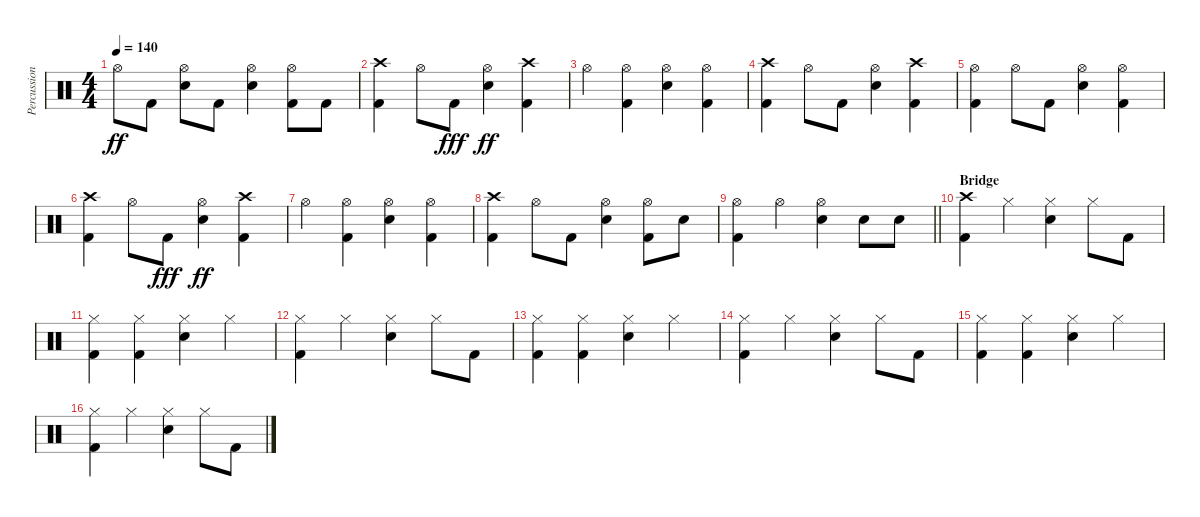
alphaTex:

\track ("Percussion" "Percussion") {instrument percussion}
\staff {score}
\articulation defaults
\ts (4 4)
\tempo 140
\clef neutral
\ks c "Hi-Hat (open)".8{dy ff} "Kick (hit) 2".8
("Hi-Hat (open)" "Snare (hit) 2").8 "Kick (hit) 2".8 ("Hi-Hat (open)" "Snare (hit) 2").4 ("Hi-Hat (open)" "Kick (hit) 2").8 "Kick (hit) 2".8 |
("Crash high (hit)" "Kick (hit) 2").4 "Hi-Hat (open)".8 "Kick (hit) 2".8{dy fff} ("Hi-Hat (open)" "Snare (hit) 2").4{dy ff} ("Crash high (hit)" "Kick (hit) 2").4 |
"Hi-Hat (open)".4 ("Hi-Hat (open)" "Kick (hit) 2").4 ("Hi-Hat (open)" "Snare (hit) 2").4 ("Hi-Hat (open)" "Kick (hit) 2").4 |
("Crash high (hit)" "Kick (hit) 2").4 "Hi-Hat (open)".8 "Kick (hit) 2".8 ("Hi-Hat (open)" "Snare (hit) 2").4 ("Crash high (hit)" "Kick (hit) 2").4 |
("Hi-Hat (open)" "Kick (hit) 2").4 "Hi-Hat (open)".8 "Kick (hit) 2".8 ("Hi-Hat (open)" "Snare (hit) 2").4 ("Hi-Hat (open)" "Kick (hit) 2").4 |
("Crash high (hit)" "Kick (hit) 2").4 "Hi-Hat (open)".8 "Kick (hit) 2".8{dy fff} ("Hi-Hat (open)" "Snare (hit) 2").4{dy ff} ("Crash high (hit)" "Kick (hit) 2").4 |
"Hi-Hat (open)".4 ("Hi-Hat (open)" "Kick (hit) 2").4 ("Hi-Hat (open)" "Snare (hit) 2").4 ("Hi-Hat (open)" "Kick (hit) 2").4 |
("Crash high (hit)" "Kick (hit) 2").4 "Hi-Hat (open)".8 "Kick (hit) 2".8 ("Hi-Hat (open)" "Snare (hit) 2").4 ("Hi-Hat (open)" "Kick (hit) 2").8 "Snare (hit) 2".8 |
\barLineRight lightlight
("Hi-Hat (open)" "Kick (hit) 2").4 "Hi-Hat (open)".4 ("Hi-Hat (open)" "Snare (hit) 2").4 "Snare (hit) 2".8 "Snare (hit) 2".8 |
\section ("" "Bridge")
("Crash high (hit)" "Kick (hit) 2").4 "Hi-Hat (closed)".4 ("Hi-Hat (closed)" "Snare (hit) 2").4 "Hi-Hat (closed)".8 "Kick (hit) 2".8 |
("Hi-Hat (closed)" "Kick (hit) 2").4 ("Hi-Hat (closed)" "Kick (hit) 2").4 ("Hi-Hat (closed)" "Snare (hit) 2").4 "Hi-Hat (closed)".4 |
("Hi-Hat (closed)" "Kick (hit) 2").4 "Hi-Hat (closed)".4 ("Hi-Hat (closed)" "Snare (hit) 2").4 "Hi-Hat (closed)".8 "Kick (hit) 2".8 |
("Hi-Hat (closed)" "Kick (hit) 2").4 ("Hi-Hat (closed)" "Kick (hit) 2").4 ("Hi-Hat (closed)" "Snare (hit) 2").4 "Hi-Hat (closed)".4 |
("Hi-Hat (closed)" "Kick (hit) 2").4 "Hi-Hat (closed)".4 ("Hi-Hat (closed)" "Snare (hit) 2").4 "Hi-Hat (closed)".8 "Kick (hit) 2".8 |
("Hi-Hat (closed)" "Kick (hit) 2").4 ("Hi-Hat (closed)" "Kick (hit) 2").4 ("Hi-Hat (closed)" "Snare (hit) 2").4 "Hi-Hat (closed)".4 |
("Hi-Hat (closed)" "Kick (hit) 2").4 "Hi-Hat (closed)".4 ("Hi-Hat (closed)" "Snare (hit) 2").4 "Hi-Hat (closed)".8 "Kick (hit) 2".8
